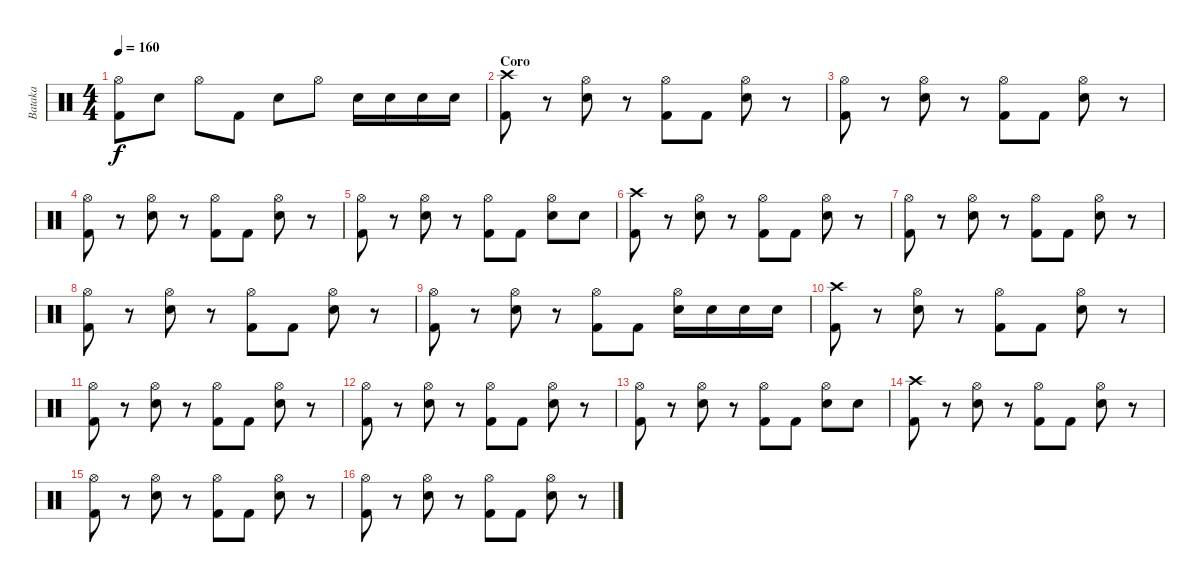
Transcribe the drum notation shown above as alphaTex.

\track ("Bataka" "Bataka") {instrument percussion}
\staff {score}
\articulation defaults
\ts (4 4)
\tempo 160
\clef neutral
\ks c
("Hi-Hat (open)" "Kick (hit) 2").8{dy f} "Snare (hit) 2".8 "Hi-Hat (open)".8 "Kick (hit) 2".8 "Snare (hit) 2".8 "Hi-Hat (open)".8 "Snare (hit) 2".16 "Snare (hit) 2".16 "Snare (hit) 2".16 "Snare (hit) 2".16 |
\section ("" "Coro")
("Crash high (hit)" "Kick (hit) 2").8 r.8 ("Hi-Hat (open)" "Snare (hit) 2").8 r.8 ("Hi-Hat (open)" "Kick (hit) 2").8 "Kick (hit) 2".8 ("Hi-Hat (open)" "Snare (hit) 2").8 r.8 |
("Hi-Hat (open)" "Kick (hit) 2").8 r.8 ("Hi-Hat (open)" "Snare (hit) 2").8 r.8 ("Hi-Hat (open)" "Kick (hit) 2").8 "Kick (hit) 2".8 ("Hi-Hat (open)" "Snare (hit) 2").8 r.8 |
("Hi-Hat (open)" "Kick (hit) 2").8 r.8 ("Hi-Hat (open)" "Snare (hit) 2").8 r.8 ("Hi-Hat (open)" "Kick (hit) 2").8 "Kick (hit) 2".8 ("Hi-Hat (open)" "Snare (hit) 2").8 r.8 |
("Hi-Hat (open)" "Kick (hit) 2").8 r.8 ("Hi-Hat (open)" "Snare (hit) 2").8 r.8 ("Hi-Hat (open)" "Kick (hit) 2").8 "Kick (hit) 2".8 ("Hi-Hat (open)" "Snare (hit) 2").8 "Snare (hit) 2".8 |
("Crash high (hit)" "Kick (hit) 2").8 r.8 ("Hi-Hat (open)" "Snare (hit) 2").8 r.8 ("Hi-Hat (open)" "Kick (hit) 2").8 "Kick (hit) 2".8 ("Hi-Hat (open)" "Snare (hit) 2").8 r.8 |
("Hi-Hat (open)" "Kick (hit) 2").8 r.8 ("Hi-Hat (open)" "Snare (hit) 2").8 r.8 ("Hi-Hat (open)" "Kick (hit) 2").8 "Kick (hit) 2".8 ("Hi-Hat (open)" "Snare (hit) 2").8 r.8 |
("Hi-Hat (open)" "Kick (hit) 2").8 r.8 ("Hi-Hat (open)" "Snare (hit) 2").8 r.8 ("Hi-Hat (open)" "Kick (hit) 2").8 "Kick (hit) 2".8 ("Hi-Hat (open)" "Snare (hit) 2").8 r.8 |
("Hi-Hat (open)" "Kick (hit) 2").8 r.8 ("Hi-Hat (open)" "Snare (hit) 2").8 r.8 ("Hi-Hat (open)" "Kick (hit) 2").8 "Kick (hit) 2".8 ("Hi-Hat (open)" "Snare (hit) 2").16 "Snare (hit) 2".16 "Snare (hit) 2".16 "Snare (hit) 2".16 |
("Crash high (hit)" "Kick (hit) 2").8 r.8 ("Hi-Hat (open)" "Snare (hit) 2").8 r.8 ("Hi-Hat (open)" "Kick (hit) 2").8 "Kick (hit) 2".8 ("Hi-Hat (open)" "Snare (hit) 2").8 r.8 |
("Hi-Hat (open)" "Kick (hit) 2").8 r.8 ("Hi-Hat (open)" "Snare (hit) 2").8 r.8 ("Hi-Hat (open)" "Kick (hit) 2").8 "Kick (hit) 2".8 ("Hi-Hat (open)" "Snare (hit) 2").8 r.8 |
("Hi-Hat (open)" "Kick (hit) 2").8 r.8 ("Hi-Hat (open)" "Snare (hit) 2").8 r.8 ("Hi-Hat (open)" "Kick (hit) 2").8 "Kick (hit) 2".8 ("Hi-Hat (open)" "Snare (hit) 2").8 r.8 |
("Hi-Hat (open)" "Kick (hit) 2").8 r.8 ("Hi-Hat (open)" "Snare (hit) 2").8 r.8 ("Hi-Hat (open)" "Kick (hit) 2").8 "Kick (hit) 2".8 ("Hi-Hat (open)" "Snare (hit) 2").8 "Snare (hit) 2".8 |
("Crash high (hit)" "Kick (hit) 2").8 r.8 ("Hi-Hat (open)" "Snare (hit) 2").8 r.8 ("Hi-Hat (open)" "Kick (hit) 2").8 "Kick (hit) 2".8 ("Hi-Hat (open)" "Snare (hit) 2").8 r.8 |
("Hi-Hat (open)" "Kick (hit) 2").8 r.8 ("Hi-Hat (open)" "Snare (hit) 2").8 r.8 ("Hi-Hat (open)" "Kick (hit) 2").8 "Kick (hit) 2".8 ("Hi-Hat (open)" "Snare (hit) 2").8 r.8 |
("Hi-Hat (open)" "Kick (hit) 2").8 r.8 ("Hi-Hat (open)" "Snare (hit) 2").8 r.8 ("Hi-Hat (open)" "Kick (hit) 2").8 "Kick (hit) 2".8 ("Hi-Hat (open)" "Snare (hit) 2").8 r.8
